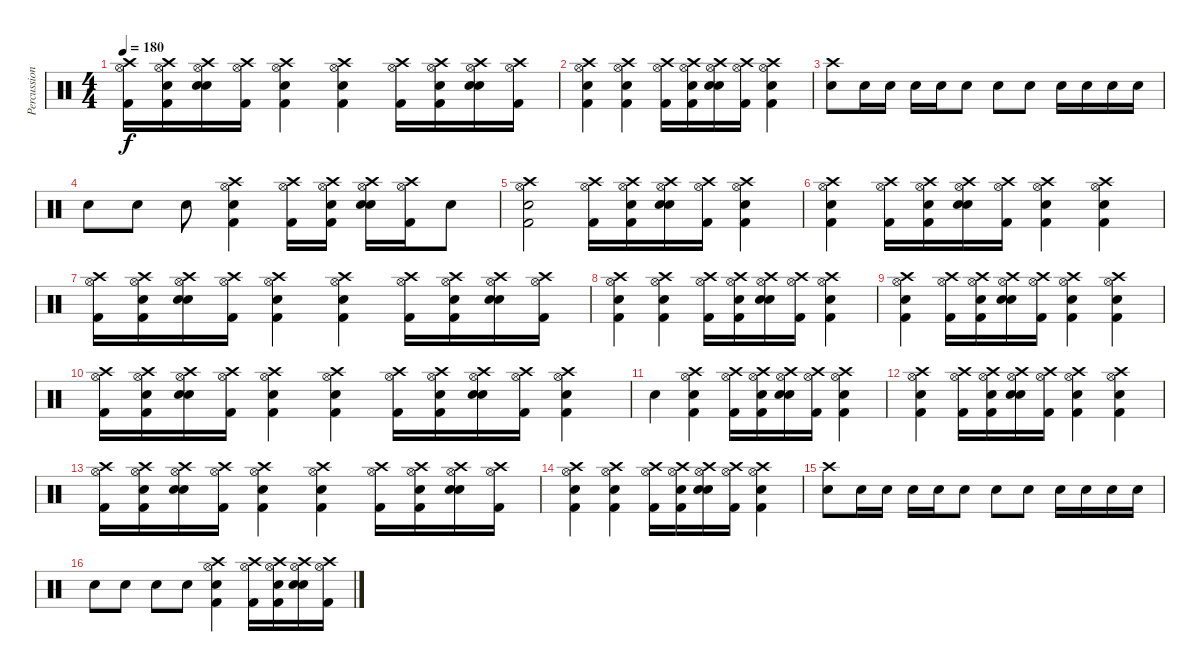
\track ("Percussion" "Percussion") {instrument percussion}
\staff {score}
\articulation defaults
\ts (4 4)
\tempo 180
\clef neutral
\ks c
("Crash high (hit)" "Hi-Hat (open)" "Kick (hit) 2").16{dy f} ("Crash high (hit)" "Hi-Hat (open)" "Snare (hit)" "Kick (hit) 2").16 ("Crash high (hit)" "Hi-Hat (open)" "Electric Snare (hit)" "Snare (hit) 2").16 ("Crash high (hit)" "Hi-Hat (open)" "Kick (hit) 2").16 ("Crash high (hit)" "Hi-Hat (open)" "Electric Snare (hit)" "Kick (hit) 2").4 ("Crash high (hit)" "Hi-Hat (open)" "Electric Snare (hit)" "Kick (hit) 2").4 ("Crash high (hit)" "Hi-Hat (open)" "Kick (hit) 2").16 ("Crash high (hit)" "Hi-Hat (open)" "Snare (hit)" "Kick (hit) 2").16 ("Crash high (hit)" "Hi-Hat (open)" "Electric Snare (hit)" "Snare (hit) 2").16 ("Crash high (hit)" "Hi-Hat (open)" "Kick (hit) 2").16 |
("Crash high (hit)" "Hi-Hat (open)" "Electric Snare (hit)" "Kick (hit) 2").4 ("Crash high (hit)" "Hi-Hat (open)" "Electric Snare (hit)" "Kick (hit) 2").4 ("Crash high (hit)" "Hi-Hat (open)" "Kick (hit) 2").16 ("Crash high (hit)" "Hi-Hat (open)" "Snare (hit)" "Kick (hit) 2").16 ("Crash high (hit)" "Hi-Hat (open)" "Electric Snare (hit)" "Snare (hit) 2").16 ("Crash high (hit)" "Hi-Hat (open)" "Kick (hit) 2").16 ("Crash high (hit)" "Hi-Hat (open)" "Electric Snare (hit)" "Kick (hit) 2").4 |
("Crash high (hit)" "Electric Snare (hit)").8 "Electric Snare (hit)".16 "Electric Snare (hit)".16 "Electric Snare (hit)".16 "Electric Snare (hit)".16 "Electric Snare (hit)".8 "Electric Snare (hit)".8 "Electric Snare (hit)".8 "Electric Snare (hit)".16 "Electric Snare (hit)".16 "Electric Snare (hit)".16 "Electric Snare (hit)".16 |
"Electric Snare (hit)".8 "Electric Snare (hit)".8 "Electric Snare (hit)".8 ("Crash high (hit)" "Hi-Hat (open)" "Electric Snare (hit)" "Kick (hit) 2").4 ("Crash high (hit)" "Hi-Hat (open)" "Kick (hit) 2").16 ("Crash high (hit)" "Hi-Hat (open)" "Snare (hit)" "Kick (hit) 2").16 ("Crash high (hit)" "Hi-Hat (open)" "Electric Snare (hit)" "Snare (hit) 2").16 ("Crash high (hit)" "Hi-Hat (open)" "Kick (hit) 2").16 "Snare (hit)".8 |
("Crash high (hit)" "Hi-Hat (open)" "Electric Snare (hit)" "Kick (hit) 2").2 ("Crash high (hit)" "Hi-Hat (open)" "Kick (hit) 2").16 ("Crash high (hit)" "Hi-Hat (open)" "Snare (hit)" "Kick (hit) 2").16 ("Crash high (hit)" "Hi-Hat (open)" "Electric Snare (hit)" "Snare (hit) 2").16 ("Crash high (hit)" "Hi-Hat (open)" "Kick (hit) 2").16 ("Crash high (hit)" "Hi-Hat (open)" "Electric Snare (hit)" "Kick (hit) 2").4 |
("Crash high (hit)" "Hi-Hat (open)" "Electric Snare (hit)" "Kick (hit) 2").4 ("Crash high (hit)" "Hi-Hat (open)" "Kick (hit) 2").16 ("Crash high (hit)" "Hi-Hat (open)" "Snare (hit)" "Kick (hit) 2").16 ("Crash high (hit)" "Hi-Hat (open)" "Electric Snare (hit)" "Snare (hit) 2").16 ("Crash high (hit)" "Hi-Hat (open)" "Kick (hit) 2").16 ("Crash high (hit)" "Hi-Hat (open)" "Electric Snare (hit)" "Kick (hit) 2").4 ("Crash high (hit)" "Hi-Hat (open)" "Electric Snare (hit)" "Kick (hit) 2").4 |
("Crash high (hit)" "Hi-Hat (open)" "Kick (hit) 2").16 ("Crash high (hit)" "Hi-Hat (open)" "Snare (hit)" "Kick (hit) 2").16 ("Crash high (hit)" "Hi-Hat (open)" "Electric Snare (hit)" "Snare (hit) 2").16 ("Crash high (hit)" "Hi-Hat (open)" "Kick (hit) 2").16 ("Crash high (hit)" "Hi-Hat (open)" "Electric Snare (hit)" "Kick (hit) 2").4 ("Crash high (hit)" "Hi-Hat (open)" "Electric Snare (hit)" "Kick (hit) 2").4 ("Crash high (hit)" "Hi-Hat (open)" "Kick (hit) 2").16 ("Crash high (hit)" "Hi-Hat (open)" "Snare (hit)" "Kick (hit) 2").16 ("Crash high (hit)" "Hi-Hat (open)" "Electric Snare (hit)" "Snare (hit) 2").16 ("Crash high (hit)" "Hi-Hat (open)" "Kick (hit) 2").16 |
("Crash high (hit)" "Hi-Hat (open)" "Electric Snare (hit)" "Kick (hit) 2").4 ("Crash high (hit)" "Hi-Hat (open)" "Electric Snare (hit)" "Kick (hit) 2").4 ("Crash high (hit)" "Hi-Hat (open)" "Kick (hit) 2").16 ("Crash high (hit)" "Hi-Hat (open)" "Snare (hit)" "Kick (hit) 2").16 ("Crash high (hit)" "Hi-Hat (open)" "Electric Snare (hit)" "Snare (hit) 2").16 ("Crash high (hit)" "Hi-Hat (open)" "Kick (hit) 2").16 ("Crash high (hit)" "Hi-Hat (open)" "Electric Snare (hit)" "Kick (hit) 2").4 |
("Crash high (hit)" "Hi-Hat (open)" "Electric Snare (hit)" "Kick (hit) 2").4 ("Crash high (hit)" "Hi-Hat (open)" "Kick (hit) 2").16 ("Crash high (hit)" "Hi-Hat (open)" "Snare (hit)" "Kick (hit) 2").16 ("Crash high (hit)" "Hi-Hat (open)" "Electric Snare (hit)" "Snare (hit) 2").16 ("Crash high (hit)" "Hi-Hat (open)" "Kick (hit) 2").16 ("Crash high (hit)" "Hi-Hat (open)" "Electric Snare (hit)" "Kick (hit) 2").4 ("Crash high (hit)" "Hi-Hat (open)" "Electric Snare (hit)" "Kick (hit) 2").4 |
("Crash high (hit)" "Hi-Hat (open)" "Kick (hit) 2").16 ("Crash high (hit)" "Hi-Hat (open)" "Snare (hit)" "Kick (hit) 2").16 ("Crash high (hit)" "Hi-Hat (open)" "Electric Snare (hit)" "Snare (hit) 2").16 ("Crash high (hit)" "Hi-Hat (open)" "Kick (hit) 2").16 ("Crash high (hit)" "Hi-Hat (open)" "Electric Snare (hit)" "Kick (hit) 2").4 ("Crash high (hit)" "Hi-Hat (open)" "Electric Snare (hit)" "Kick (hit) 2").4 ("Crash high (hit)" "Hi-Hat (open)" "Kick (hit) 2").16 ("Crash high (hit)" "Hi-Hat (open)" "Snare (hit)" "Kick (hit) 2").16 ("Crash high (hit)" "Hi-Hat (open)" "Electric Snare (hit)" "Snare (hit) 2").16 ("Crash high (hit)" "Hi-Hat (open)" "Kick (hit) 2").16 ("Crash high (hit)" "Hi-Hat (open)" "Electric Snare (hit)" "Kick (hit) 2").4 |
"Snare (hit)".4 ("Crash high (hit)" "Hi-Hat (open)" "Electric Snare (hit)" "Kick (hit) 2").4 ("Crash high (hit)" "Hi-Hat (open)" "Kick (hit) 2").16 ("Crash high (hit)" "Hi-Hat (open)" "Snare (hit)" "Kick (hit) 2").16 ("Crash high (hit)" "Hi-Hat (open)" "Electric Snare (hit)" "Snare (hit) 2").16 ("Crash high (hit)" "Hi-Hat (open)" "Kick (hit) 2").16 ("Crash high (hit)" "Hi-Hat (open)" "Electric Snare (hit)" "Kick (hit) 2").4 |
("Crash high (hit)" "Hi-Hat (open)" "Electric Snare (hit)" "Kick (hit) 2").4 ("Crash high (hit)" "Hi-Hat (open)" "Kick (hit) 2").16 ("Crash high (hit)" "Hi-Hat (open)" "Snare (hit)" "Kick (hit) 2").16 ("Crash high (hit)" "Hi-Hat (open)" "Electric Snare (hit)" "Snare (hit) 2").16 ("Crash high (hit)" "Hi-Hat (open)" "Kick (hit) 2").16 ("Crash high (hit)" "Hi-Hat (open)" "Electric Snare (hit)" "Kick (hit) 2").4 ("Crash high (hit)" "Hi-Hat (open)" "Electric Snare (hit)" "Kick (hit) 2").4 |
("Crash high (hit)" "Hi-Hat (open)" "Kick (hit) 2").16 ("Crash high (hit)" "Hi-Hat (open)" "Snare (hit)" "Kick (hit) 2").16 ("Crash high (hit)" "Hi-Hat (open)" "Electric Snare (hit)" "Snare (hit) 2").16 ("Crash high (hit)" "Hi-Hat (open)" "Kick (hit) 2").16 ("Crash high (hit)" "Hi-Hat (open)" "Electric Snare (hit)" "Kick (hit) 2").4 ("Crash high (hit)" "Hi-Hat (open)" "Electric Snare (hit)" "Kick (hit) 2").4 ("Crash high (hit)" "Hi-Hat (open)" "Kick (hit) 2").16 ("Crash high (hit)" "Hi-Hat (open)" "Snare (hit)" "Kick (hit) 2").16 ("Crash high (hit)" "Hi-Hat (open)" "Electric Snare (hit)" "Snare (hit) 2").16 ("Crash high (hit)" "Hi-Hat (open)" "Kick (hit) 2").16 |
("Crash high (hit)" "Hi-Hat (open)" "Electric Snare (hit)" "Kick (hit) 2").4 ("Crash high (hit)" "Hi-Hat (open)" "Electric Snare (hit)" "Kick (hit) 2").4 ("Crash high (hit)" "Hi-Hat (open)" "Kick (hit) 2").16 ("Crash high (hit)" "Hi-Hat (open)" "Snare (hit)" "Kick (hit) 2").16 ("Crash high (hit)" "Hi-Hat (open)" "Electric Snare (hit)" "Snare (hit) 2").16 ("Crash high (hit)" "Hi-Hat (open)" "Kick (hit) 2").16 ("Crash high (hit)" "Hi-Hat (open)" "Electric Snare (hit)" "Kick (hit) 2").4 |
("Crash high (hit)" "Electric Snare (hit)").8 "Electric Snare (hit)".16 "Electric Snare (hit)".16 "Electric Snare (hit)".16 "Electric Snare (hit)".16 "Electric Snare (hit)".8 "Electric Snare (hit)".8 "Electric Snare (hit)".8 "Electric Snare (hit)".16 "Electric Snare (hit)".16 "Electric Snare (hit)".16 "Electric Snare (hit)".16 |
"Electric Snare (hit)".8 "Electric Snare (hit)".8 "Electric Snare (hit)".8 "Snare (hit)".8 ("Crash high (hit)" "Hi-Hat (open)" "Electric Snare (hit)" "Kick (hit) 2").4 ("Crash high (hit)" "Hi-Hat (open)" "Kick (hit) 2").16 ("Crash high (hit)" "Hi-Hat (open)" "Snare (hit)" "Kick (hit) 2").16 ("Crash high (hit)" "Hi-Hat (open)" "Electric Snare (hit)" "Snare (hit) 2").16 ("Crash high (hit)" "Hi-Hat (open)" "Kick (hit) 2").16
